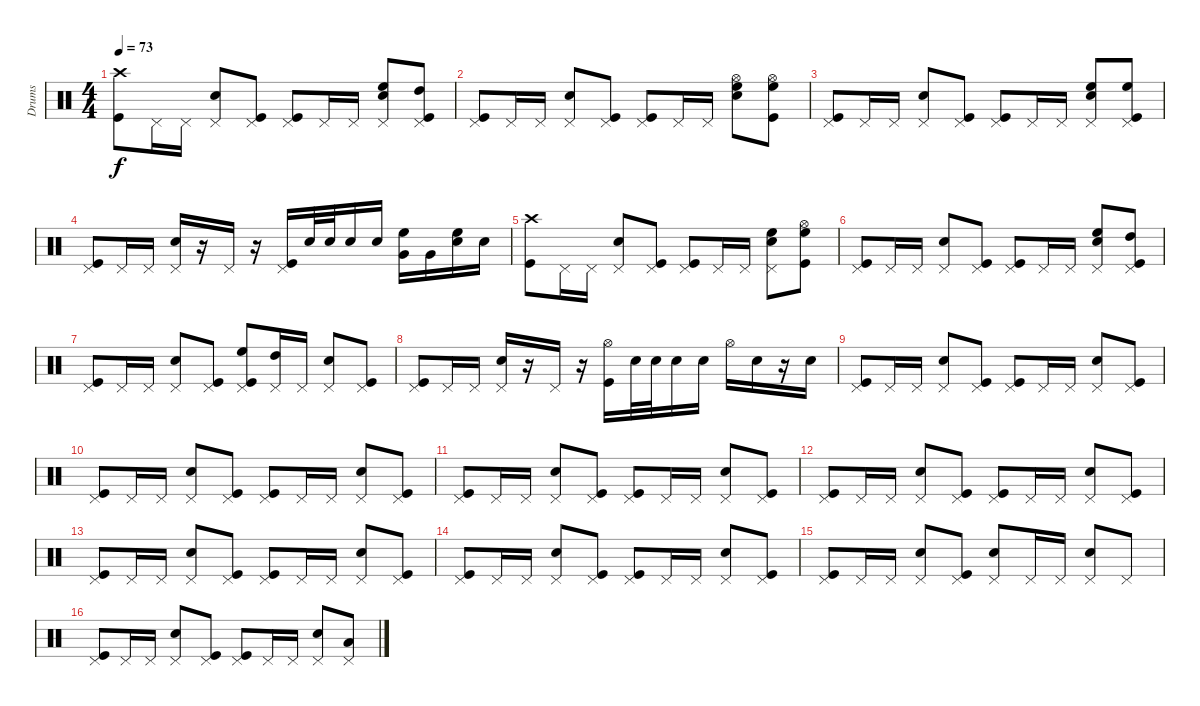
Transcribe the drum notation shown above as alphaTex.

\track ("Drums" "Drums") {instrument percussion}
\staff {score}
\articulation defaults
\ts (4 4)
\tempo 73
\clef neutral
\ks c
("Crash high (hit)" "Kick (hit)").8{dy f} "Pedal Hi-Hat (hit)".16 "Pedal Hi-Hat (hit)".16 ("Snare (hit) 2" "Pedal Hi-Hat (hit)").8 ("Kick (hit)" "Pedal Hi-Hat (hit)").8 ("Kick (hit)" "Pedal Hi-Hat (hit)").8 "Pedal Hi-Hat (hit)".16 "Pedal Hi-Hat (hit)".16 ("High Floor Tom (hit)" "Snare (hit) 2" "Pedal Hi-Hat (hit)").8 ("Pedal Hi-Hat (hit)" "Kick (hit)" "High Tom (hit)").8 |
("Kick (hit)" "Pedal Hi-Hat (hit)").8 "Pedal Hi-Hat (hit)".16 "Pedal Hi-Hat (hit)".16 ("Snare (hit) 2" "Pedal Hi-Hat (hit)").8 ("Kick (hit)" "Pedal Hi-Hat (hit)").8 ("Kick (hit)" "Pedal Hi-Hat (hit)").8 "Pedal Hi-Hat (hit)".16 "Pedal Hi-Hat (hit)".16 ("High Floor Tom (hit)" "Hi-Hat (open)" "Snare (hit) 2").8 ("Kick (hit)" "Hi-Hat (open)" "High Floor Tom (hit)").8 |
("Pedal Hi-Hat (hit)" "Kick (hit)").8 "Pedal Hi-Hat (hit)".16 "Pedal Hi-Hat (hit)".16 ("Snare (hit) 2" "Pedal Hi-Hat (hit)").8 ("Kick (hit)" "Pedal Hi-Hat (hit)").8 ("Kick (hit)" "Pedal Hi-Hat (hit)").8 "Pedal Hi-Hat (hit)".16 "Pedal Hi-Hat (hit)".16 ("High Floor Tom (hit)" "Snare (hit) 2" "Pedal Hi-Hat (hit)").8 ("Pedal Hi-Hat (hit)" "Kick (hit)" "High Floor Tom (hit)").8 |
("Kick (hit)" "Pedal Hi-Hat (hit)").8 "Pedal Hi-Hat (hit)".16 "Pedal Hi-Hat (hit)".16 ("Snare (hit) 2" "Pedal Hi-Hat (hit)").16 r.16 "Pedal Hi-Hat (hit)".16 r.16 ("Kick (hit)" "Pedal Hi-Hat (hit)").16 "Snare (hit) 2".32 "Snare (hit) 2".32 "Snare (hit) 2".16 "Snare (hit) 2".16 ("High Floor Tom (hit)" "Very Low Tom (hit)").16 "Very Low Tom (hit)".16 ("High Floor Tom (hit)" "Electric Snare (hit)").16 "Electric Snare (hit)".16 |
("Crash high (hit)" "Kick (hit)").8 "Pedal Hi-Hat (hit)".16 "Pedal Hi-Hat (hit)".16 ("Snare (hit) 2" "Pedal Hi-Hat (hit)").8 ("Kick (hit)" "Pedal Hi-Hat (hit)").8 ("Kick (hit)" "Pedal Hi-Hat (hit)").8 "Pedal Hi-Hat (hit)".16 "Pedal Hi-Hat (hit)".16 ("High Floor Tom (hit)" "Snare (hit) 2" "Pedal Hi-Hat (hit)").8 ("Kick (hit)" "Hi-Hat (open)" "High Floor Tom (hit)").8 |
("Kick (hit)" "Pedal Hi-Hat (hit)").8 "Pedal Hi-Hat (hit)".16 "Pedal Hi-Hat (hit)".16 ("Snare (hit) 2" "Pedal Hi-Hat (hit)").8 ("Kick (hit)" "Pedal Hi-Hat (hit)").8 ("Kick (hit)" "Pedal Hi-Hat (hit)").8 "Pedal Hi-Hat (hit)".16 "Pedal Hi-Hat (hit)".16 ("High Floor Tom (hit)" "Snare (hit) 2" "Pedal Hi-Hat (hit)").8 ("Pedal Hi-Hat (hit)" "Kick (hit)" "High Tom (hit)").8 |
("Kick (hit)" "Pedal Hi-Hat (hit)").8 "Pedal Hi-Hat (hit)".16 "Pedal Hi-Hat (hit)".16 ("Snare (hit) 2" "Pedal Hi-Hat (hit)").8 ("Kick (hit)" "Pedal Hi-Hat (hit)").8 ("High Floor Tom (hit)" "Kick (hit)" "Pedal Hi-Hat (hit)").8 ("High Tom (hit)" "Pedal Hi-Hat (hit)").16 "Pedal Hi-Hat (hit)".16 ("Snare (hit) 2" "Pedal Hi-Hat (hit)").8 ("Pedal Hi-Hat (hit)" "Kick (hit)").8 |
("Kick (hit)" "Pedal Hi-Hat (hit)").8 "Pedal Hi-Hat (hit)".16 "Pedal Hi-Hat (hit)".16 ("Snare (hit) 2" "Pedal Hi-Hat (hit)").16 r.16 "Pedal Hi-Hat (hit)".16 r.16 ("Hi-Hat (open)" "Kick (hit)").16 "Snare (hit) 2".32 "Snare (hit) 2".32 "Snare (hit) 2".16 "Snare (hit) 2".16 "Hi-Hat (open)".16 "Electric Snare (hit)".16 r.16 "Electric Snare (hit)".16 |
("Kick (hit)" "Pedal Hi-Hat (hit)").8 "Pedal Hi-Hat (hit)".16 "Pedal Hi-Hat (hit)".16 ("Snare (hit) 2" "Pedal Hi-Hat (hit)").8 ("Kick (hit)" "Pedal Hi-Hat (hit)").8 ("Kick (hit)" "Pedal Hi-Hat (hit)").8 "Pedal Hi-Hat (hit)".16 "Pedal Hi-Hat (hit)".16 ("Snare (hit) 2" "Pedal Hi-Hat (hit)").8 ("Pedal Hi-Hat (hit)" "Kick (hit)").8 |
("Kick (hit)" "Pedal Hi-Hat (hit)").8 "Pedal Hi-Hat (hit)".16 "Pedal Hi-Hat (hit)".16 ("Snare (hit) 2" "Pedal Hi-Hat (hit)").8 ("Kick (hit)" "Pedal Hi-Hat (hit)").8 ("Kick (hit)" "Pedal Hi-Hat (hit)").8 "Pedal Hi-Hat (hit)".16 "Pedal Hi-Hat (hit)".16 ("Snare (hit) 2" "Pedal Hi-Hat (hit)").8 ("Pedal Hi-Hat (hit)" "Kick (hit)").8 |
("Kick (hit)" "Pedal Hi-Hat (hit)").8 "Pedal Hi-Hat (hit)".16 "Pedal Hi-Hat (hit)".16 ("Snare (hit) 2" "Pedal Hi-Hat (hit)").8 ("Kick (hit)" "Pedal Hi-Hat (hit)").8 ("Kick (hit)" "Pedal Hi-Hat (hit)").8 "Pedal Hi-Hat (hit)".16 "Pedal Hi-Hat (hit)".16 ("Snare (hit) 2" "Pedal Hi-Hat (hit)").8 ("Pedal Hi-Hat (hit)" "Kick (hit)").8 |
("Pedal Hi-Hat (hit)" "Kick (hit)").8 "Pedal Hi-Hat (hit)".16 "Pedal Hi-Hat (hit)".16 ("Snare (hit) 2" "Pedal Hi-Hat (hit)").8 ("Kick (hit)" "Pedal Hi-Hat (hit)").8 ("Kick (hit)" "Pedal Hi-Hat (hit)").8 "Pedal Hi-Hat (hit)".16 "Pedal Hi-Hat (hit)".16 ("Snare (hit) 2" "Pedal Hi-Hat (hit)").8 ("Pedal Hi-Hat (hit)" "Kick (hit)").8 |
("Kick (hit)" "Pedal Hi-Hat (hit)").8 "Pedal Hi-Hat (hit)".16 "Pedal Hi-Hat (hit)".16 ("Snare (hit) 2" "Pedal Hi-Hat (hit)").8 ("Kick (hit)" "Pedal Hi-Hat (hit)").8 ("Kick (hit)" "Pedal Hi-Hat (hit)").8 "Pedal Hi-Hat (hit)".16 "Pedal Hi-Hat (hit)".16 ("Snare (hit) 2" "Pedal Hi-Hat (hit)").8 ("Pedal Hi-Hat (hit)" "Kick (hit)").8 |
("Kick (hit)" "Pedal Hi-Hat (hit)").8 "Pedal Hi-Hat (hit)".16 "Pedal Hi-Hat (hit)".16 ("Snare (hit) 2" "Pedal Hi-Hat (hit)").8 ("Kick (hit)" "Pedal Hi-Hat (hit)").8 ("Kick (hit)" "Pedal Hi-Hat (hit)").8 "Pedal Hi-Hat (hit)".16 "Pedal Hi-Hat (hit)".16 ("Snare (hit) 2" "Pedal Hi-Hat (hit)").8 ("Pedal Hi-Hat (hit)" "Kick (hit)").8 |
("Kick (hit)" "Pedal Hi-Hat (hit)").8 "Pedal Hi-Hat (hit)".16 "Pedal Hi-Hat (hit)".16 ("Snare (hit) 2" "Pedal Hi-Hat (hit)").8 ("Kick (hit)" "Pedal Hi-Hat (hit)").8 ("Snare (hit) 2" "Pedal Hi-Hat (hit)").8 "Pedal Hi-Hat (hit)".16 "Pedal Hi-Hat (hit)".16 ("Snare (hit) 2" "Pedal Hi-Hat (hit)").8 "Pedal Hi-Hat (hit)".8 |
("Kick (hit)" "Pedal Hi-Hat (hit)").8 "Pedal Hi-Hat (hit)".16 "Pedal Hi-Hat (hit)".16 ("Snare (hit) 2" "Pedal Hi-Hat (hit)").8 ("Kick (hit)" "Pedal Hi-Hat (hit)").8 ("Kick (hit)" "Pedal Hi-Hat (hit)").8 "Pedal Hi-Hat (hit)".16 "Pedal Hi-Hat (hit)".16 ("Snare (hit) 2" "Pedal Hi-Hat (hit)").8 ("Pedal Hi-Hat (hit)" "Low Floor Tom (hit)").8
